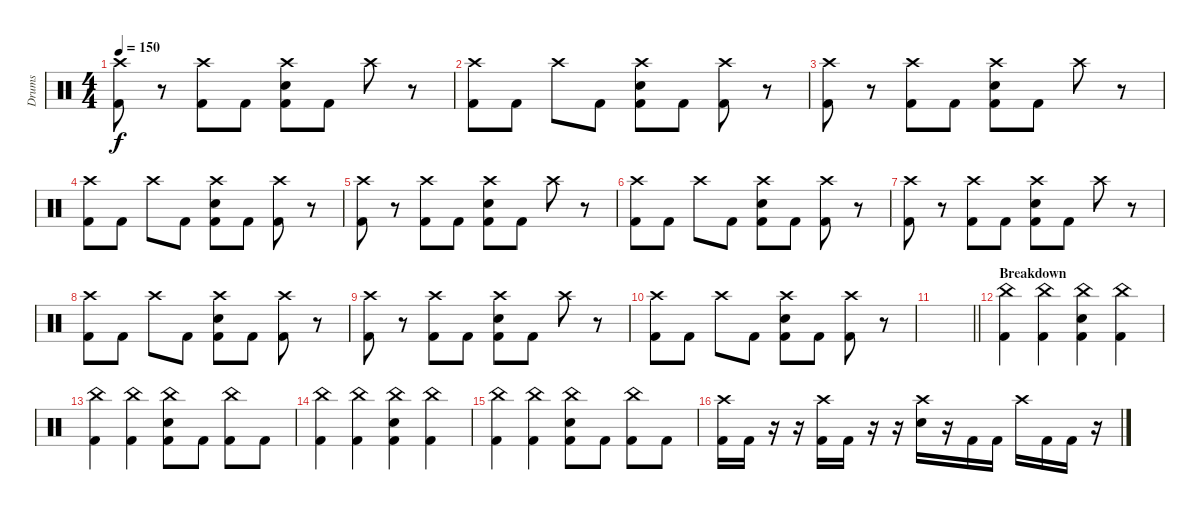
\track ("Drums" "Drums") {instrument percussion}
\staff {score}
\articulation defaults
\ts (4 4)
\tempo 150
\clef neutral
\ks c
("Crash high (hit)" "Kick (hit) 2").8{dy f} r.8 ("Crash high (hit)" "Kick (hit) 2").8 "Kick (hit) 2".8 ("Crash high (hit)" "Electric Snare (hit)" "Kick (hit) 2").8 "Kick (hit) 2".8 "Crash high (hit)".8 r.8 |
("Crash high (hit)" "Kick (hit) 2").8 "Kick (hit) 2".8 "Crash high (hit)".8 "Kick (hit) 2".8 ("Crash high (hit)" "Electric Snare (hit)" "Kick (hit) 2").8 "Kick (hit) 2".8 ("Crash high (hit)" "Kick (hit) 2").8 r.8 |
("Crash high (hit)" "Kick (hit) 2").8 r.8 ("Crash high (hit)" "Kick (hit) 2").8 "Kick (hit) 2".8 ("Crash high (hit)" "Electric Snare (hit)" "Kick (hit) 2").8 "Kick (hit) 2".8 "Crash high (hit)".8 r.8 |
("Crash high (hit)" "Kick (hit) 2").8 "Kick (hit) 2".8 "Crash high (hit)".8 "Kick (hit) 2".8 ("Crash high (hit)" "Electric Snare (hit)" "Kick (hit) 2").8 "Kick (hit) 2".8 ("Crash high (hit)" "Kick (hit) 2").8 r.8 |
("Crash high (hit)" "Kick (hit) 2").8 r.8 ("Crash high (hit)" "Kick (hit) 2").8 "Kick (hit) 2".8 ("Crash high (hit)" "Electric Snare (hit)" "Kick (hit) 2").8 "Kick (hit) 2".8 "Crash high (hit)".8 r.8 |
("Crash high (hit)" "Kick (hit) 2").8 "Kick (hit) 2".8 "Crash high (hit)".8 "Kick (hit) 2".8 ("Crash high (hit)" "Electric Snare (hit)" "Kick (hit) 2").8 "Kick (hit) 2".8 ("Crash high (hit)" "Kick (hit) 2").8 r.8 |
("Crash high (hit)" "Kick (hit) 2").8 r.8 ("Crash high (hit)" "Kick (hit) 2").8 "Kick (hit) 2".8 ("Crash high (hit)" "Electric Snare (hit)" "Kick (hit) 2").8 "Kick (hit) 2".8 "Crash high (hit)".8 r.8 |
("Crash high (hit)" "Kick (hit) 2").8 "Kick (hit) 2".8 "Crash high (hit)".8 "Kick (hit) 2".8 ("Crash high (hit)" "Electric Snare (hit)" "Kick (hit) 2").8 "Kick (hit) 2".8 ("Crash high (hit)" "Kick (hit) 2").8 r.8 |
("Crash high (hit)" "Kick (hit) 2").8 r.8 ("Crash high (hit)" "Kick (hit) 2").8 "Kick (hit) 2".8 ("Crash high (hit)" "Electric Snare (hit)" "Kick (hit) 2").8 "Kick (hit) 2".8 "Crash high (hit)".8 r.8 |
("Crash high (hit)" "Kick (hit) 2").8 "Kick (hit) 2".8 "Crash high (hit)".8 "Kick (hit) 2".8 ("Crash high (hit)" "Electric Snare (hit)" "Kick (hit) 2").8 "Kick (hit) 2".8 ("Crash high (hit)" "Kick (hit) 2").8 r.8 |
\barLineRight lightlight
|
\section ("" "Breakdown")
("China (hit)" "Kick (hit) 2").4 ("China (hit)" "Kick (hit) 2").4 ("China (hit)" "Electric Snare (hit)" "Kick (hit) 2").4 ("China (hit)" "Kick (hit) 2").4 |
("China (hit)" "Kick (hit) 2").4 ("China (hit)" "Kick (hit) 2").4 ("China (hit)" "Electric Snare (hit)" "Kick (hit) 2").8 "Kick (hit) 2".8 ("China (hit)" "Kick (hit) 2").8 "Kick (hit) 2".8 |
("China (hit)" "Kick (hit) 2").4 ("China (hit)" "Kick (hit) 2").4 ("China (hit)" "Electric Snare (hit)" "Kick (hit) 2").4 ("China (hit)" "Kick (hit) 2").4 |
("China (hit)" "Kick (hit) 2").4 ("China (hit)" "Kick (hit) 2").4 ("China (hit)" "Electric Snare (hit)" "Kick (hit) 2").8 "Kick (hit) 2".8 ("China (hit)" "Kick (hit) 2").8 "Kick (hit) 2".8 |
("Crash high (hit)" "Kick (hit) 2").16 "Kick (hit) 2".16 r.16 r.16 ("Crash high (hit)" "Kick (hit) 2").16 "Kick (hit) 2".16 r.16 r.16 ("Crash high (hit)" "Electric Snare (hit)").16 r.16 "Kick (hit) 2".16 "Kick (hit) 2".16 "Crash high (hit)".16 "Kick (hit) 2".16 "Kick (hit) 2".16 r.16
